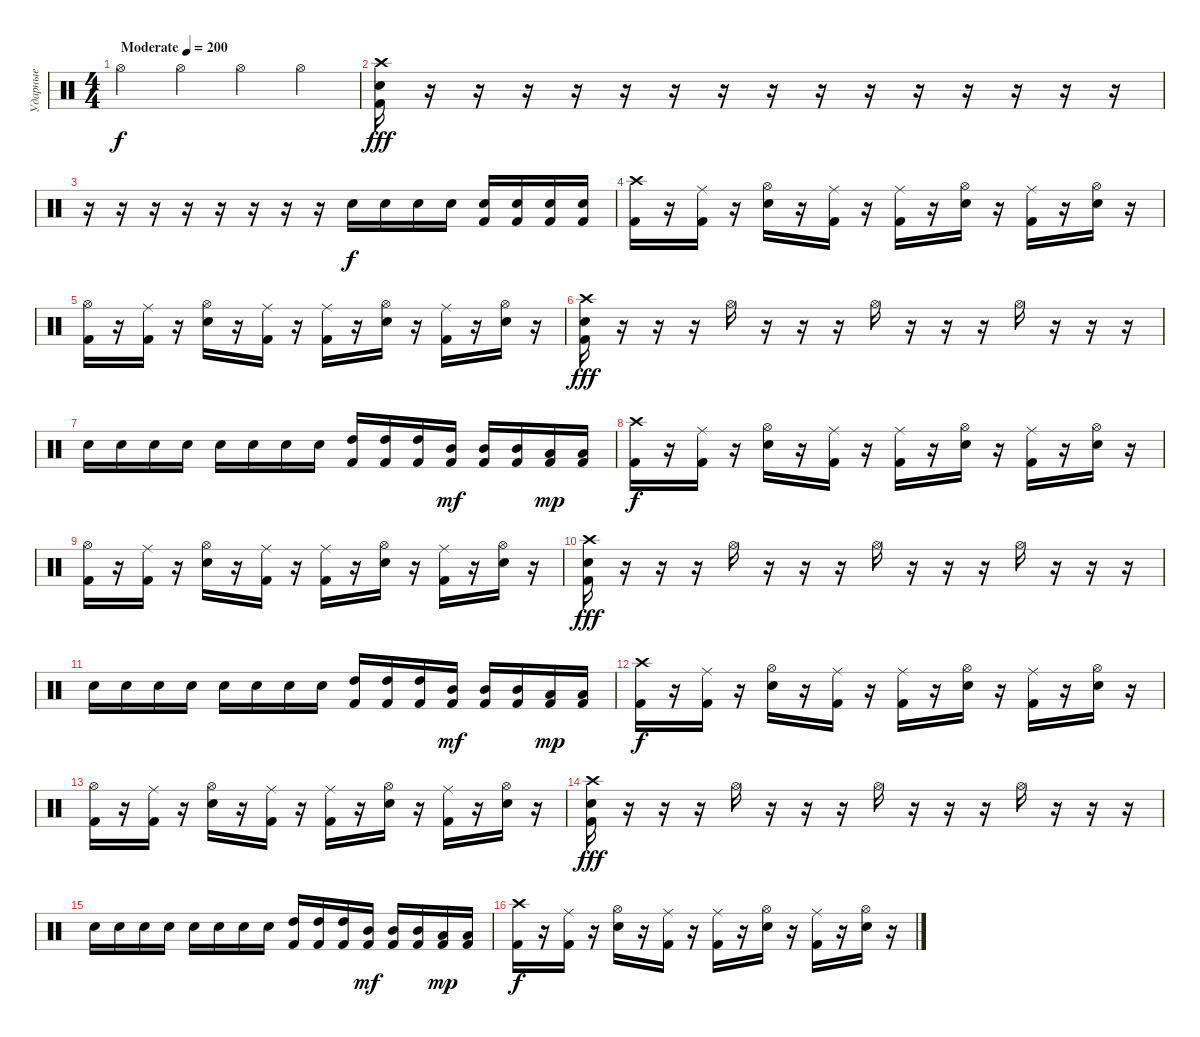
\track ("Ударные" "Ударные") {instrument percussion}
\staff {score}
\articulation defaults
\ts (4 4)
\tempo (200 "Moderate")
\clef neutral
\ks c "Hi-Hat (open)".4{dy f} "Hi-Hat (open)".4 "Hi-Hat (open)".4 "Hi-Hat (open)".4
|
("Crash high (hit)" "Electric Snare (hit)" "Kick (hit) 2").16{dy fff} r.16 r.16 r.16 r.16 r.16 r.16 r.16 r.16 r.16 r.16 r.16 r.16 r.16 r.16 r.16 |
r.16 r.16 r.16 r.16 r.16 r.16 r.16 r.16 "Electric Snare (hit)".16{dy f} "Electric Snare (hit)".16 "Electric Snare (hit)".16 "Electric Snare (hit)".16 ("Electric Snare (hit)" "Kick (hit) 2").16 ("Electric Snare (hit)" "Kick (hit) 2").16 ("Electric Snare (hit)" "Kick (hit) 2").16 ("Electric Snare (hit)" "Kick (hit) 2").16 |
("Crash high (hit)" "Kick (hit) 2").16 r.16 ("Ride (middle)" "Kick (hit) 2").16 r.16 ("Hi-Hat (open)" "Electric Snare (hit)").16 r.16 ("Ride (middle)" "Kick (hit) 2").16 r.16 ("Ride (middle)" "Kick (hit) 2").16 r.16 ("Hi-Hat (open)" "Electric Snare (hit)").16 r.16 ("Ride (middle)" "Kick (hit) 2").16 r.16 ("Hi-Hat (open)" "Electric Snare (hit)").16 r.16 |
("Hi-Hat (open)" "Kick (hit) 2").16 r.16 ("Ride (middle)" "Kick (hit) 2").16 r.16 ("Hi-Hat (open)" "Electric Snare (hit)").16 r.16 ("Ride (middle)" "Kick (hit) 2").16 r.16 ("Ride (middle)" "Kick (hit) 2").16 r.16 ("Hi-Hat (open)" "Electric Snare (hit)").16 r.16 ("Ride (middle)" "Kick (hit) 2").16 r.16 ("Hi-Hat (open)" "Electric Snare (hit)").16 r.16 |
("Crash high (hit)" "Electric Snare (hit)" "Kick (hit) 2").16{dy fff} r.16 r.16 r.16 "Hi-Hat (open)".16 r.16 r.16 r.16 "Hi-Hat (open)".16 r.16 r.16 r.16 "Hi-Hat (open)".16 r.16 r.16 r.16 |
"Electric Snare (hit)".16 "Electric Snare (hit)".16 "Electric Snare (hit)".16 "Electric Snare (hit)".16 "Electric Snare (hit)".16 "Electric Snare (hit)".16 "Electric Snare (hit)".16 "Electric Snare (hit)".16 ("High Tom (hit)" "Kick (hit) 2").16 ("High Tom (hit)" "Kick (hit) 2").16 ("High Tom (hit)" "Kick (hit) 2").16 ("Mid Tom (hit)" "Kick (hit) 2").16{dy mf} ("Mid Tom (hit)" "Kick (hit) 2").16 ("Mid Tom (hit)" "Kick (hit) 2").16 ("Low Tom (hit)" "Kick (hit) 2").16{dy mp} ("Low Tom (hit)" "Kick (hit) 2").16 |
("Crash high (hit)" "Kick (hit) 2").16{dy f} r.16 ("Ride (middle)" "Kick (hit) 2").16 r.16 ("Hi-Hat (open)" "Electric Snare (hit)").16 r.16 ("Ride (middle)" "Kick (hit) 2").16 r.16 ("Ride (middle)" "Kick (hit) 2").16 r.16 ("Hi-Hat (open)" "Electric Snare (hit)").16 r.16 ("Ride (middle)" "Kick (hit) 2").16 r.16 ("Hi-Hat (open)" "Electric Snare (hit)").16 r.16 |
("Hi-Hat (open)" "Kick (hit) 2").16 r.16 ("Ride (middle)" "Kick (hit) 2").16 r.16 ("Hi-Hat (open)" "Electric Snare (hit)").16 r.16 ("Ride (middle)" "Kick (hit) 2").16 r.16 ("Ride (middle)" "Kick (hit) 2").16 r.16 ("Hi-Hat (open)" "Electric Snare (hit)").16 r.16 ("Ride (middle)" "Kick (hit) 2").16 r.16 ("Hi-Hat (open)" "Electric Snare (hit)").16 r.16 |
("Crash high (hit)" "Electric Snare (hit)" "Kick (hit) 2").16{dy fff} r.16 r.16 r.16 "Hi-Hat (open)".16 r.16 r.16 r.16 "Hi-Hat (open)".16 r.16 r.16 r.16 "Hi-Hat (open)".16 r.16 r.16 r.16 |
"Electric Snare (hit)".16 "Electric Snare (hit)".16 "Electric Snare (hit)".16 "Electric Snare (hit)".16 "Electric Snare (hit)".16 "Electric Snare (hit)".16 "Electric Snare (hit)".16 "Electric Snare (hit)".16 ("High Tom (hit)" "Kick (hit) 2").16 ("High Tom (hit)" "Kick (hit) 2").16 ("High Tom (hit)" "Kick (hit) 2").16 ("Mid Tom (hit)" "Kick (hit) 2").16{dy mf} ("Mid Tom (hit)" "Kick (hit) 2").16 ("Mid Tom (hit)" "Kick (hit) 2").16 ("Low Tom (hit)" "Kick (hit) 2").16{dy mp} ("Low Tom (hit)" "Kick (hit) 2").16 |
("Crash high (hit)" "Kick (hit) 2").16{dy f} r.16 ("Ride (middle)" "Kick (hit) 2").16 r.16 ("Hi-Hat (open)" "Electric Snare (hit)").16 r.16 ("Ride (middle)" "Kick (hit) 2").16 r.16 ("Ride (middle)" "Kick (hit) 2").16 r.16 ("Hi-Hat (open)" "Electric Snare (hit)").16 r.16 ("Ride (middle)" "Kick (hit) 2").16 r.16 ("Hi-Hat (open)" "Electric Snare (hit)").16 r.16 |
("Hi-Hat (open)" "Kick (hit) 2").16 r.16 ("Ride (middle)" "Kick (hit) 2").16 r.16 ("Hi-Hat (open)" "Electric Snare (hit)").16 r.16 ("Ride (middle)" "Kick (hit) 2").16 r.16 ("Ride (middle)" "Kick (hit) 2").16 r.16 ("Hi-Hat (open)" "Electric Snare (hit)").16 r.16 ("Ride (middle)" "Kick (hit) 2").16 r.16 ("Hi-Hat (open)" "Electric Snare (hit)").16 r.16 |
("Crash high (hit)" "Electric Snare (hit)" "Kick (hit) 2").16{dy fff} r.16 r.16 r.16 "Hi-Hat (open)".16 r.16 r.16 r.16 "Hi-Hat (open)".16 r.16 r.16 r.16 "Hi-Hat (open)".16 r.16 r.16 r.16 |
"Electric Snare (hit)".16 "Electric Snare (hit)".16 "Electric Snare (hit)".16 "Electric Snare (hit)".16 "Electric Snare (hit)".16 "Electric Snare (hit)".16 "Electric Snare (hit)".16 "Electric Snare (hit)".16 ("High Tom (hit)" "Kick (hit) 2").16 ("High Tom (hit)" "Kick (hit) 2").16 ("High Tom (hit)" "Kick (hit) 2").16 ("Mid Tom (hit)" "Kick (hit) 2").16{dy mf} ("Mid Tom (hit)" "Kick (hit) 2").16 ("Mid Tom (hit)" "Kick (hit) 2").16 ("Low Tom (hit)" "Kick (hit) 2").16{dy mp} ("Low Tom (hit)" "Kick (hit) 2").16 |
("Crash high (hit)" "Kick (hit) 2").16{dy f} r.16 ("Ride (middle)" "Kick (hit) 2").16 r.16 ("Hi-Hat (open)" "Electric Snare (hit)").16 r.16 ("Ride (middle)" "Kick (hit) 2").16 r.16 ("Ride (middle)" "Kick (hit) 2").16 r.16 ("Hi-Hat (open)" "Electric Snare (hit)").16 r.16 ("Ride (middle)" "Kick (hit) 2").16 r.16 ("Hi-Hat (open)" "Electric Snare (hit)").16 r.16
